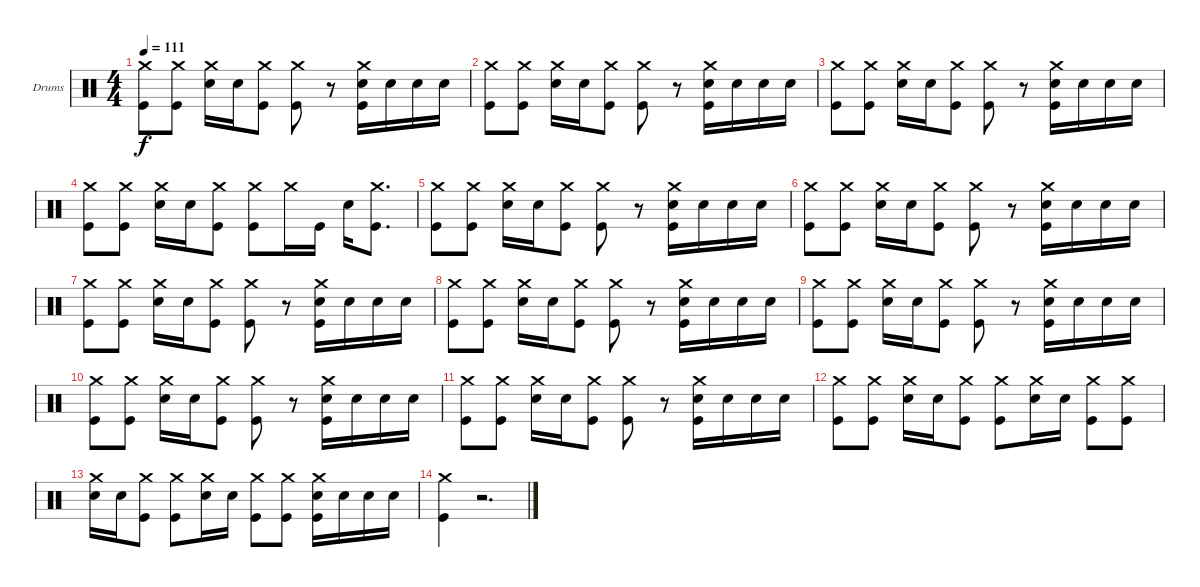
\bracketExtendMode groupsimilarinstruments
\firstSystemTrackNameOrientation horizontal
\otherSystemsTrackNameOrientation horizontal
\track ("Drumkit" "Drums") {instrument percussion}
\staff {score}
\articulation defaults
\ts (4 4)
\tempo 111
\clef neutral
\ks c
("Crash medium (hit)" "Kick (hit)").8{dy f} ("Crash medium (hit)" "Kick (hit)").8 ("Crash medium (hit)" "Snare (hit) 2").16 "Snare (hit) 2".16 ("Crash medium (hit)" "Kick (hit)").8 ("Crash medium (hit)" "Kick (hit)").8 r.8 ("Crash medium (hit)" "Snare (hit) 2" "Kick (hit)").16 "Snare (hit) 2".16 "Snare (hit) 2".16 "Snare (hit) 2".16 |
("Crash medium (hit)" "Kick (hit)").8 ("Crash medium (hit)" "Kick (hit)").8 ("Crash medium (hit)" "Snare (hit) 2").16 "Snare (hit) 2".16 ("Crash medium (hit)" "Kick (hit)").8 ("Crash medium (hit)" "Kick (hit)").8 r.8 ("Crash medium (hit)" "Snare (hit) 2" "Kick (hit)").16 "Snare (hit) 2".16 "Snare (hit) 2".16 "Snare (hit) 2".16 |
("Crash medium (hit)" "Kick (hit)").8 ("Crash medium (hit)" "Kick (hit)").8 ("Crash medium (hit)" "Snare (hit) 2").16 "Snare (hit) 2".16 ("Crash medium (hit)" "Kick (hit)").8 ("Crash medium (hit)" "Kick (hit)").8 r.8 ("Crash medium (hit)" "Snare (hit) 2" "Kick (hit)").16 "Snare (hit) 2".16 "Snare (hit) 2".16 "Snare (hit) 2".16 |
("Crash medium (hit)" "Kick (hit)").8 ("Crash medium (hit)" "Kick (hit)").8 ("Crash medium (hit)" "Snare (hit) 2").16 "Snare (hit) 2".16 ("Crash medium (hit)" "Kick (hit)").8 ("Crash medium (hit)" "Kick (hit)").8 "Crash medium (hit)".16 "Kick (hit)".16 "Snare (hit) 2".16 ("Crash medium (hit)" "Kick (hit)").8{d} |
("Crash medium (hit)" "Kick (hit)").8 ("Crash medium (hit)" "Kick (hit)").8 ("Crash medium (hit)" "Snare (hit) 2").16 "Snare (hit) 2".16 ("Crash medium (hit)" "Kick (hit)").8 ("Crash medium (hit)" "Kick (hit)").8 r.8 ("Crash medium (hit)" "Snare (hit) 2" "Kick (hit)").16 "Snare (hit) 2".16 "Snare (hit) 2".16 "Snare (hit) 2".16 |
("Crash medium (hit)" "Kick (hit)").8 ("Crash medium (hit)" "Kick (hit)").8 ("Crash medium (hit)" "Snare (hit) 2").16 "Snare (hit) 2".16 ("Crash medium (hit)" "Kick (hit)").8 ("Crash medium (hit)" "Kick (hit)").8 r.8 ("Crash medium (hit)" "Snare (hit) 2" "Kick (hit)").16 "Snare (hit) 2".16 "Snare (hit) 2".16 "Snare (hit) 2".16 |
("Crash medium (hit)" "Kick (hit)").8 ("Crash medium (hit)" "Kick (hit)").8 ("Crash medium (hit)" "Snare (hit) 2").16 "Snare (hit) 2".16 ("Crash medium (hit)" "Kick (hit)").8 ("Crash medium (hit)" "Kick (hit)").8 r.8 ("Crash medium (hit)" "Snare (hit) 2" "Kick (hit)").16 "Snare (hit) 2".16 "Snare (hit) 2".16 "Snare (hit) 2".16 |
("Crash medium (hit)" "Kick (hit)").8 ("Crash medium (hit)" "Kick (hit)").8 ("Crash medium (hit)" "Snare (hit) 2").16 "Snare (hit) 2".16 ("Crash medium (hit)" "Kick (hit)").8 ("Crash medium (hit)" "Kick (hit)").8 r.8 ("Crash medium (hit)" "Snare (hit) 2" "Kick (hit)").16 "Snare (hit) 2".16 "Snare (hit) 2".16 "Snare (hit) 2".16 |
("Crash medium (hit)" "Kick (hit)").8 ("Crash medium (hit)" "Kick (hit)").8 ("Crash medium (hit)" "Snare (hit) 2").16 "Snare (hit) 2".16 ("Crash medium (hit)" "Kick (hit)").8 ("Crash medium (hit)" "Kick (hit)").8 r.8 ("Crash medium (hit)" "Snare (hit) 2" "Kick (hit)").16 "Snare (hit) 2".16 "Snare (hit) 2".16 "Snare (hit) 2".16 |
("Crash medium (hit)" "Kick (hit)").8 ("Crash medium (hit)" "Kick (hit)").8 ("Crash medium (hit)" "Snare (hit) 2").16 "Snare (hit) 2".16 ("Crash medium (hit)" "Kick (hit)").8 ("Crash medium (hit)" "Kick (hit)").8 r.8 ("Crash medium (hit)" "Snare (hit) 2" "Kick (hit)").16 "Snare (hit) 2".16 "Snare (hit) 2".16 "Snare (hit) 2".16 |
("Crash medium (hit)" "Kick (hit)").8 ("Crash medium (hit)" "Kick (hit)").8 ("Crash medium (hit)" "Snare (hit) 2").16 "Snare (hit) 2".16 ("Crash medium (hit)" "Kick (hit)").8 ("Crash medium (hit)" "Kick (hit)").8 r.8 ("Crash medium (hit)" "Snare (hit) 2" "Kick (hit)").16 "Snare (hit) 2".16 "Snare (hit) 2".16 "Snare (hit) 2".16 |
("Crash medium (hit)" "Kick (hit)").8 ("Crash medium (hit)" "Kick (hit)").8 ("Crash medium (hit)" "Snare (hit) 2").16 "Snare (hit) 2".16 ("Crash medium (hit)" "Kick (hit)").8 ("Crash medium (hit)" "Kick (hit)").8 ("Crash medium (hit)" "Snare (hit) 2").16 "Snare (hit) 2".16 ("Crash medium (hit)" "Kick (hit)").8 ("Crash medium (hit)" "Kick (hit)").8 |
("Crash medium (hit)" "Snare (hit) 2").16 "Snare (hit) 2".16 ("Crash medium (hit)" "Kick (hit)").8 ("Crash medium (hit)" "Kick (hit)").8 ("Crash medium (hit)" "Snare (hit) 2").16 "Snare (hit) 2".16 ("Crash medium (hit)" "Kick (hit)").8 ("Crash medium (hit)" "Kick (hit)").8 ("Crash medium (hit)" "Snare (hit) 2" "Kick (hit)").16 "Snare (hit) 2".16 "Snare (hit) 2".16 "Snare (hit) 2".16 |
("Crash medium (hit)" "Kick (hit)").4 r.2{d}
